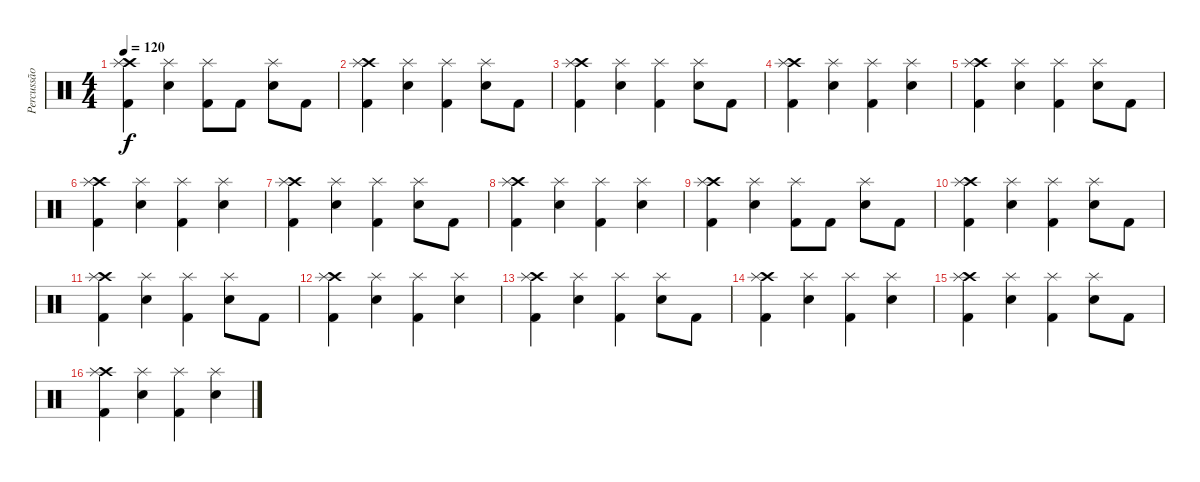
\track ("Percussão" "Percussão") {instrument percussion}
\staff {score}
\articulation defaults
\ts (4 4)
\tempo 120
\clef neutral
\ks c
("Crash high (hit)" "Splash (hit)" "Kick (hit) 2").4{dy f} ("Splash (hit)" "Snare (hit) 2").4 ("Splash (hit)" "Kick (hit) 2").8 "Kick (hit) 2".8 ("Splash (hit)" "Snare (hit) 2").8 "Kick (hit) 2".8 |
("Crash high (hit)" "Splash (hit)" "Kick (hit) 2").4 ("Splash (hit)" "Snare (hit) 2").4 ("Splash (hit)" "Kick (hit) 2").4 ("Splash (hit)" "Snare (hit) 2").8 "Kick (hit) 2".8 |
("Crash high (hit)" "Splash (hit)" "Kick (hit) 2").4 ("Splash (hit)" "Snare (hit) 2").4 ("Splash (hit)" "Kick (hit) 2").4 ("Splash (hit)" "Snare (hit) 2").8 "Kick (hit) 2".8 |
("Crash high (hit)" "Splash (hit)" "Kick (hit) 2").4 ("Splash (hit)" "Snare (hit) 2").4 ("Splash (hit)" "Kick (hit) 2").4 ("Splash (hit)" "Snare (hit) 2").4 |
("Crash high (hit)" "Splash (hit)" "Kick (hit) 2").4 ("Splash (hit)" "Snare (hit) 2").4 ("Splash (hit)" "Kick (hit) 2").4 ("Splash (hit)" "Snare (hit) 2").8 "Kick (hit) 2".8 |
("Crash high (hit)" "Splash (hit)" "Kick (hit) 2").4 ("Splash (hit)" "Snare (hit) 2").4 ("Splash (hit)" "Kick (hit) 2").4 ("Splash (hit)" "Snare (hit) 2").4 |
("Crash high (hit)" "Splash (hit)" "Kick (hit) 2").4 ("Splash (hit)" "Snare (hit) 2").4 ("Splash (hit)" "Kick (hit) 2").4 ("Splash (hit)" "Snare (hit) 2").8 "Kick (hit) 2".8 |
("Crash high (hit)" "Splash (hit)" "Kick (hit) 2").4 ("Splash (hit)" "Snare (hit) 2").4 ("Splash (hit)" "Kick (hit) 2").4 ("Splash (hit)" "Snare (hit) 2").4 |
("Crash high (hit)" "Splash (hit)" "Kick (hit) 2").4 ("Splash (hit)" "Snare (hit) 2").4 ("Splash (hit)" "Kick (hit) 2").8 "Kick (hit) 2".8 ("Splash (hit)" "Snare (hit) 2").8 "Kick (hit) 2".8 |
("Crash high (hit)" "Splash (hit)" "Kick (hit) 2").4 ("Splash (hit)" "Snare (hit) 2").4 ("Splash (hit)" "Kick (hit) 2").4 ("Splash (hit)" "Snare (hit) 2").8 "Kick (hit) 2".8 |
("Crash high (hit)" "Splash (hit)" "Kick (hit) 2").4 ("Splash (hit)" "Snare (hit) 2").4 ("Splash (hit)" "Kick (hit) 2").4 ("Splash (hit)" "Snare (hit) 2").8 "Kick (hit) 2".8 |
("Crash high (hit)" "Splash (hit)" "Kick (hit) 2").4 ("Splash (hit)" "Snare (hit) 2").4 ("Splash (hit)" "Kick (hit) 2").4 ("Splash (hit)" "Snare (hit) 2").4 |
("Crash high (hit)" "Splash (hit)" "Kick (hit) 2").4 ("Splash (hit)" "Snare (hit) 2").4 ("Splash (hit)" "Kick (hit) 2").4 ("Splash (hit)" "Snare (hit) 2").8 "Kick (hit) 2".8 |
("Crash high (hit)" "Splash (hit)" "Kick (hit) 2").4 ("Splash (hit)" "Snare (hit) 2").4 ("Splash (hit)" "Kick (hit) 2").4 ("Splash (hit)" "Snare (hit) 2").4 |
("Crash high (hit)" "Splash (hit)" "Kick (hit) 2").4 ("Splash (hit)" "Snare (hit) 2").4 ("Splash (hit)" "Kick (hit) 2").4 ("Splash (hit)" "Snare (hit) 2").8 "Kick (hit) 2".8 |
("Crash high (hit)" "Splash (hit)" "Kick (hit) 2").4 ("Splash (hit)" "Snare (hit) 2").4 ("Splash (hit)" "Kick (hit) 2").4 ("Splash (hit)" "Snare (hit) 2").4
